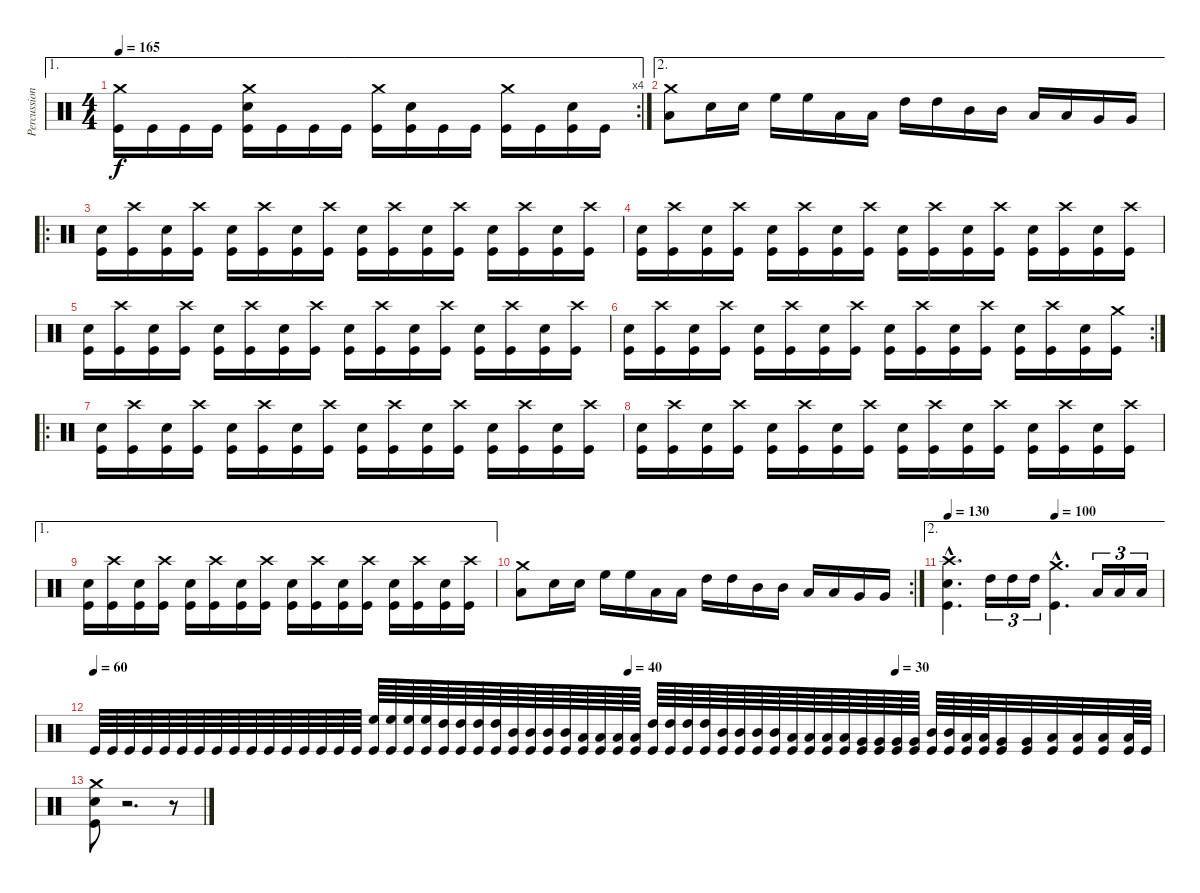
\track ("Percussion" "Percussion") {instrument percussion}
\staff {score}
\articulation defaults
\ae 1
\rc 4
\ts (4 4)
\tempo 165
\clef neutral
\ks c
("Crash medium (hit)" "Kick (hit)").16{dy f} "Kick (hit)".16 "Kick (hit)".16 "Kick (hit)".16 ("Crash medium (hit)" "Snare (hit) 2" "Kick (hit)").16 "Kick (hit)".16 "Kick (hit)".16 "Kick (hit)".16 ("Crash medium (hit)" "Kick (hit)").16 ("Snare (hit) 2" "Kick (hit)").16 "Kick (hit)".16 "Kick (hit)".16 ("Crash medium (hit)" "Kick (hit)").16 "Kick (hit)".16 ("Snare (hit) 2" "Kick (hit)").16 "Kick (hit)".16 |
\ae 2
("Crash medium (hit)" "Low Tom (hit)").8 "Snare (hit) 2".16 "Snare (hit) 2".16 "High Floor Tom (hit)".16 "High Floor Tom (hit)".16 "Low Tom (hit)".16 "Low Tom (hit)".16 "High Tom (hit)".16 "High Tom (hit)".16 "Mid Tom (hit)".16 "Mid Tom (hit)".16 "Low Tom (hit)".16 "Low Tom (hit)".16 "Very Low Tom (hit)".16 "Very Low Tom (hit)".16 |
\ro
("Snare (hit) 2" "Kick (hit)").16 ("Crash high (hit)" "Kick (hit)").16 ("Snare (hit) 2" "Kick (hit)").16 ("Crash high (hit)" "Kick (hit)").16 ("Snare (hit) 2" "Kick (hit)").16 ("Crash high (hit)" "Kick (hit)").16 ("Snare (hit) 2" "Kick (hit)").16 ("Crash high (hit)" "Kick (hit)").16 ("Snare (hit) 2" "Kick (hit)").16 ("Crash high (hit)" "Kick (hit)").16 ("Snare (hit) 2" "Kick (hit)").16 ("Crash high (hit)" "Kick (hit)").16 ("Snare (hit) 2" "Kick (hit)").16 ("Crash high (hit)" "Kick (hit)").16 ("Snare (hit) 2" "Kick (hit)").16 ("Crash high (hit)" "Kick (hit)").16 |
("Snare (hit) 2" "Kick (hit)").16 ("Crash high (hit)" "Kick (hit)").16 ("Snare (hit) 2" "Kick (hit)").16 ("Crash high (hit)" "Kick (hit)").16 ("Snare (hit) 2" "Kick (hit)").16 ("Crash high (hit)" "Kick (hit)").16 ("Snare (hit) 2" "Kick (hit)").16 ("Crash high (hit)" "Kick (hit)").16 ("Snare (hit) 2" "Kick (hit)").16 ("Crash high (hit)" "Kick (hit)").16 ("Snare (hit) 2" "Kick (hit)").16 ("Crash high (hit)" "Kick (hit)").16 ("Snare (hit) 2" "Kick (hit)").16 ("Crash high (hit)" "Kick (hit)").16 ("Snare (hit) 2" "Kick (hit)").16 ("Crash high (hit)" "Kick (hit)").16 |
("Snare (hit) 2" "Kick (hit)").16 ("Crash high (hit)" "Kick (hit)").16 ("Snare (hit) 2" "Kick (hit)").16 ("Crash high (hit)" "Kick (hit)").16 ("Snare (hit) 2" "Kick (hit)").16 ("Crash high (hit)" "Kick (hit)").16 ("Snare (hit) 2" "Kick (hit)").16 ("Crash high (hit)" "Kick (hit)").16 ("Snare (hit) 2" "Kick (hit)").16 ("Crash high (hit)" "Kick (hit)").16 ("Snare (hit) 2" "Kick (hit)").16 ("Crash high (hit)" "Kick (hit)").16 ("Snare (hit) 2" "Kick (hit)").16 ("Crash high (hit)" "Kick (hit)").16 ("Snare (hit) 2" "Kick (hit)").16 ("Crash high (hit)" "Kick (hit)").16 |
\rc 2
("Snare (hit) 2" "Kick (hit)").16 ("Crash high (hit)" "Kick (hit)").16 ("Snare (hit) 2" "Kick (hit)").16 ("Crash high (hit)" "Kick (hit)").16 ("Snare (hit) 2" "Kick (hit)").16 ("Crash high (hit)" "Kick (hit)").16 ("Snare (hit) 2" "Kick (hit)").16 ("Crash high (hit)" "Kick (hit)").16 ("Snare (hit) 2" "Kick (hit)").16 ("Crash high (hit)" "Kick (hit)").16 ("Snare (hit) 2" "Kick (hit)").16 ("Crash high (hit)" "Kick (hit)").16 ("Snare (hit) 2" "Kick (hit)").16 ("Crash high (hit)" "Kick (hit)").16 ("Snare (hit) 2" "Kick (hit)").16 ("Crash medium (hit)" "Kick (hit)").16 |
\ro
("Snare (hit) 2" "Kick (hit)").16 ("Crash high (hit)" "Kick (hit)").16 ("Snare (hit) 2" "Kick (hit)").16 ("Crash high (hit)" "Kick (hit)").16 ("Snare (hit) 2" "Kick (hit)").16 ("Crash high (hit)" "Kick (hit)").16 ("Snare (hit) 2" "Kick (hit)").16 ("Crash high (hit)" "Kick (hit)").16 ("Snare (hit) 2" "Kick (hit)").16 ("Crash high (hit)" "Kick (hit)").16 ("Snare (hit) 2" "Kick (hit)").16 ("Crash high (hit)" "Kick (hit)").16 ("Snare (hit) 2" "Kick (hit)").16 ("Crash high (hit)" "Kick (hit)").16 ("Snare (hit) 2" "Kick (hit)").16 ("Crash high (hit)" "Kick (hit)").16 |
("Snare (hit) 2" "Kick (hit)").16 ("Crash high (hit)" "Kick (hit)").16 ("Snare (hit) 2" "Kick (hit)").16 ("Crash high (hit)" "Kick (hit)").16 ("Snare (hit) 2" "Kick (hit)").16 ("Crash high (hit)" "Kick (hit)").16 ("Snare (hit) 2" "Kick (hit)").16 ("Crash high (hit)" "Kick (hit)").16 ("Snare (hit) 2" "Kick (hit)").16 ("Crash high (hit)" "Kick (hit)").16 ("Snare (hit) 2" "Kick (hit)").16 ("Crash high (hit)" "Kick (hit)").16 ("Snare (hit) 2" "Kick (hit)").16 ("Crash high (hit)" "Kick (hit)").16 ("Snare (hit) 2" "Kick (hit)").16 ("Crash high (hit)" "Kick (hit)").16 |
\ae 1
("Snare (hit) 2" "Kick (hit)").16 ("Crash high (hit)" "Kick (hit)").16 ("Snare (hit) 2" "Kick (hit)").16 ("Crash high (hit)" "Kick (hit)").16 ("Snare (hit) 2" "Kick (hit)").16 ("Crash high (hit)" "Kick (hit)").16 ("Snare (hit) 2" "Kick (hit)").16 ("Crash high (hit)" "Kick (hit)").16 ("Snare (hit) 2" "Kick (hit)").16 ("Crash high (hit)" "Kick (hit)").16 ("Snare (hit) 2" "Kick (hit)").16 ("Crash high (hit)" "Kick (hit)").16 ("Snare (hit) 2" "Kick (hit)").16 ("Crash high (hit)" "Kick (hit)").16 ("Snare (hit) 2" "Kick (hit)").16 ("Crash high (hit)" "Kick (hit)").16 |
\rc 2
("Crash medium (hit)" "Low Tom (hit)").8 "Snare (hit) 2".16 "Snare (hit) 2".16 "High Floor Tom (hit)".16 "High Floor Tom (hit)".16 "Low Tom (hit)".16 "Low Tom (hit)".16 "High Tom (hit)".16 "High Tom (hit)".16 "Mid Tom (hit)".16 "Mid Tom (hit)".16 "Low Tom (hit)".16 "Low Tom (hit)".16 "Very Low Tom (hit)".16 "Very Low Tom (hit)".16 |
\ae 2
\tempo 130
\tempo (100 0.5)
("Crash high (hit)"{hac} "Snare (hit) 2"{hac} "Kick (hit)"{hac}).4{d} "High Tom (hit)".16{tu (3 2)} "High Tom (hit)".16{tu (3 2)} "High Tom (hit)".16{tu (3 2)} ("Crash medium (hit)"{hac} "Kick (hit)"{hac}).4{d} "Low Tom (hit)".16{tu (3 2)} "Low Tom (hit)".16{tu (3 2)} "Low Tom (hit)".16{tu (3 2)} |
\tempo 60
\tempo (40 0.5)
\tempo (30 0.75)
"Kick (hit)".64 "Kick (hit)".64 "Kick (hit)".64 "Kick (hit)".64 "Kick (hit)".64 "Kick (hit)".64 "Kick (hit)".64 "Kick (hit)".64 "Kick (hit)".64 "Kick (hit)".64 "Kick (hit)".64 "Kick (hit)".64 "Kick (hit)".64 "Kick (hit)".64 "Kick (hit)".64 "Kick (hit)".64 ("High Floor Tom (hit)" "Kick (hit)").64 ("High Floor Tom (hit)" "Kick (hit)").64 ("High Floor Tom (hit)" "Kick (hit)").64 ("High Floor Tom (hit)" "Kick (hit)").64 ("High Tom (hit)" "Kick (hit)").64 ("High Tom (hit)" "Kick (hit)").64 ("High Tom (hit)" "Kick (hit)").64 ("High Tom (hit)" "Kick (hit)").64 ("Mid Tom (hit)" "Kick (hit)").64 ("Mid Tom (hit)" "Kick (hit)").64 ("Mid Tom (hit)" "Kick (hit)").64 ("Mid Tom (hit)" "Kick (hit)").64 ("Low Tom (hit)" "Kick (hit)").64 ("Low Tom (hit)" "Kick (hit)").64 ("Low Tom (hit)" "Kick (hit)").64 ("Low Tom (hit)" "Kick (hit)").64 ("High Tom (hit)" "Kick (hit)").64 ("High Tom (hit)" "Kick (hit)").64 ("High Tom (hit)" "Kick (hit)").64 ("High Tom (hit)" "Kick (hit)").64 ("Mid Tom (hit)" "Kick (hit)").64 ("Mid Tom (hit)" "Kick (hit)").64 ("Mid Tom (hit)" "Kick (hit)").64 ("Mid Tom (hit)" "Kick (hit)").64 ("Low Tom (hit)" "Kick (hit)").64 ("Low Tom (hit)" "Kick (hit)").64 ("Low Tom (hit)" "Kick (hit)").64 ("Low Tom (hit)" "Kick (hit)").64 ("Very Low Tom (hit)" "Kick (hit)").64 ("Very Low Tom (hit)" "Kick (hit)").64 ("Very Low Tom (hit)" "Kick (hit)").64 ("Very Low Tom (hit)" "Kick (hit)").64 ("Mid Tom (hit)" "Kick (hit)").64 ("Mid Tom (hit)" "Kick (hit)").64 ("Low Tom (hit)" "Kick (hit)").64 ("Low Tom (hit)" "Kick (hit)").64 ("Very Low Tom (hit)" "Kick (hit)").32 ("Very Low Tom (hit)" "Kick (hit)").32 ("Low Floor Tom (hit)" "Kick (hit)").32 ("Low Floor Tom (hit)" "Kick (hit)").32 ("Low Floor Tom (hit)" "Kick (hit)").32 ("Low Floor Tom (hit)" "Kick (hit)").64 "Kick (hit)".64 |
("Crash medium (hit)" "Snare (hit) 2" "Kick (hit)").8 r.2{d} r.8
